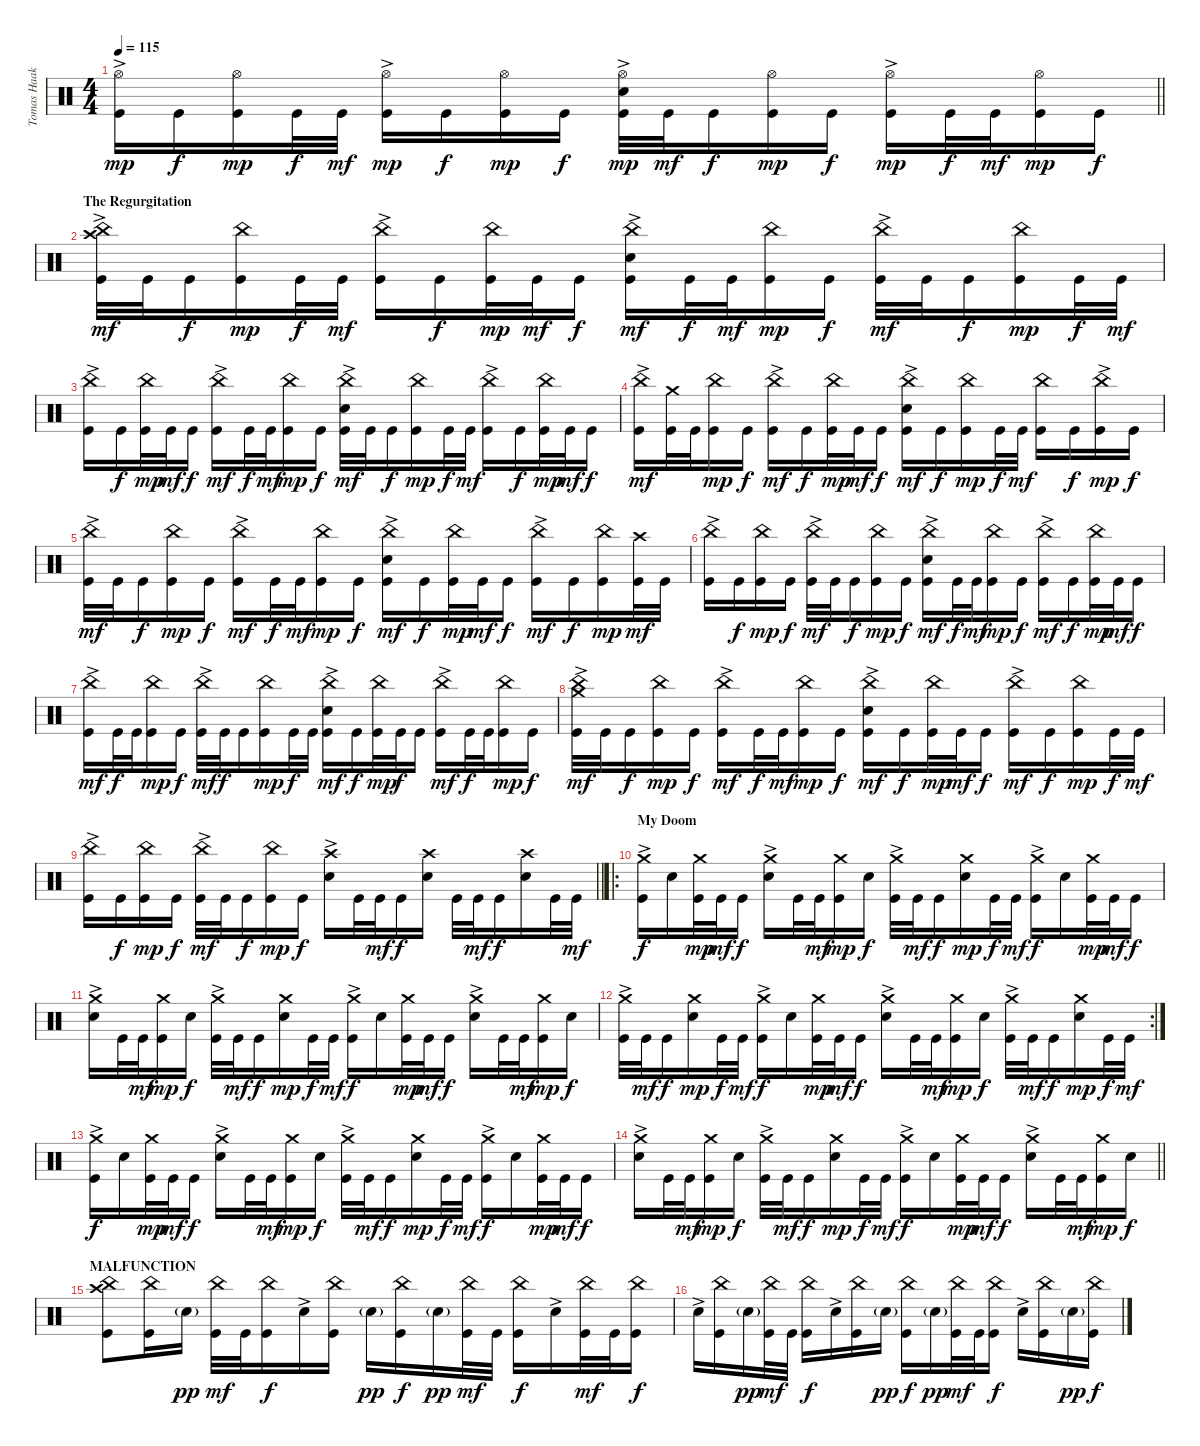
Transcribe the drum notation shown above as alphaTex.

\track ("Tomas Haake (Drums)" "Tomas Haak") {instrument percussion}
\staff {score}
\articulation defaults
\ts (4 4)
\tempo 115
\clef neutral
\barLineRight lightlight
\ks c
("Hi-Hat (open)"{ac} "Kick (hit)").16{dy mp} "Kick (hit)".16{dy f} ("Hi-Hat (open)" "Kick (hit)").16{dy mp} "Kick (hit)".32{dy f} "Kick (hit)".32{dy mf} ("Hi-Hat (open)"{ac} "Kick (hit)").16{dy mp} "Kick (hit)".16{dy f} ("Hi-Hat (open)" "Kick (hit)").16{dy mp} "Kick (hit)".16{dy f} ("Hi-Hat (open)"{ac} "Electric Snare (hit)" "Kick (hit)").32{dy mp} "Kick (hit)".32{dy mf} "Kick (hit)".16{dy f} ("Hi-Hat (open)" "Kick (hit)").16{dy mp} "Kick (hit)".16{dy f} ("Hi-Hat (open)"{ac} "Kick (hit)").16{dy mp} "Kick (hit)".32{dy f} "Kick (hit)".32{dy mf} ("Hi-Hat (open)" "Kick (hit)").16{dy mp} "Kick (hit)".16{dy f} |
\section ("" "The Regurgitation")
("China (hit)"{ac} "Crash high (hit)" "Kick (hit)").32{dy mf} "Kick (hit)".32 "Kick (hit)".16{dy f} ("China (hit)" "Kick (hit)").16{dy mp} "Kick (hit)".32{dy f} "Kick (hit)".32{dy mf} ("China (hit)"{ac} "Kick (hit)").16 "Kick (hit)".16{dy f} ("China (hit)" "Kick (hit)").32{dy mp} "Kick (hit)".32{dy mf} "Kick (hit)".16{dy f} ("China (hit)"{ac} "Electric Snare (hit)" "Kick (hit)").16{dy mf} "Kick (hit)".32{dy f} "Kick (hit)".32{dy mf} ("China (hit)" "Kick (hit)").16{dy mp} "Kick (hit)".16{dy f} ("China (hit)"{ac} "Kick (hit)").32{dy mf} "Kick (hit)".32 "Kick (hit)".16{dy f} ("China (hit)" "Kick (hit)").16{dy mp} "Kick (hit)".32{dy f} "Kick (hit)".32{dy mf} |
("China (hit)"{ac} "Kick (hit)").16 "Kick (hit)".16{dy f} ("China (hit)" "Kick (hit)").32{dy mp} "Kick (hit)".32{dy mf} "Kick (hit)".16{dy f} ("China (hit)"{ac} "Kick (hit)").16{dy mf} "Kick (hit)".32{dy f} "Kick (hit)".32{dy mf} ("China (hit)" "Kick (hit)").16{dy mp} "Kick (hit)".16{dy f} ("China (hit)"{ac} "Electric Snare (hit)" "Kick (hit)").32{dy mf} "Kick (hit)".32 "Kick (hit)".16{dy f} ("China (hit)" "Kick (hit)").16{dy mp} "Kick (hit)".32{dy f} "Kick (hit)".32{dy mf} ("China (hit)"{ac} "Kick (hit)").16 "Kick (hit)".16{dy f} ("China (hit)" "Kick (hit)").32{dy mp} "Kick (hit)".32{dy mf} "Kick (hit)".16{dy f} |
("China (hit)"{ac} "Kick (hit)").16{dy mf} ("Crash medium (hit)" "Kick (hit)").32 "Kick (hit)".32 ("China (hit)" "Kick (hit)").16{dy mp} "Kick (hit)".16{dy f} ("China (hit)"{ac} "Kick (hit)").16{dy mf} "Kick (hit)".16{dy f} ("China (hit)" "Kick (hit)").32{dy mp} "Kick (hit)".32{dy mf} "Kick (hit)".16{dy f} ("China (hit)"{ac} "Electric Snare (hit)" "Kick (hit)").16{dy mf} "Kick (hit)".16{dy f} ("China (hit)" "Kick (hit)").16{dy mp} "Kick (hit)".32{dy f} "Kick (hit)".32{dy mf} ("China (hit)" "Kick (hit)").16 "Kick (hit)".16{dy f} ("China (hit)"{ac} "Kick (hit)").16{dy mp} "Kick (hit)".16{dy f} |
("China (hit)"{ac} "Kick (hit)").32{dy mf} "Kick (hit)".32 "Kick (hit)".16{dy f} ("China (hit)" "Kick (hit)").16{dy mp} "Kick (hit)".16{dy f} ("China (hit)"{ac} "Kick (hit)").16{dy mf} "Kick (hit)".32{dy f} "Kick (hit)".32{dy mf} ("China (hit)" "Kick (hit)").16{dy mp} "Kick (hit)".16{dy f} ("China (hit)"{ac} "Electric Snare (hit)" "Kick (hit)").16{dy mf} "Kick (hit)".16{dy f} ("China (hit)" "Kick (hit)").32{dy mp} "Kick (hit)".32{dy mf} "Kick (hit)".16{dy f} ("China (hit)"{ac} "Kick (hit)").16{dy mf} "Kick (hit)".16{dy f} ("China (hit)" "Kick (hit)").16{dy mp} ("Crash high (hit)" "Kick (hit)").32{dy mf} "Kick (hit)".32 |
("China (hit)"{ac} "Kick (hit)").16 "Kick (hit)".16{dy f} ("China (hit)" "Kick (hit)").16{dy mp} "Kick (hit)".16{dy f} ("China (hit)"{ac} "Kick (hit)").32{dy mf} "Kick (hit)".32 "Kick (hit)".16{dy f} ("China (hit)" "Kick (hit)").16{dy mp} "Kick (hit)".16{dy f} ("China (hit)"{ac} "Electric Snare (hit)" "Kick (hit)").16{dy mf} "Kick (hit)".32{dy f} "Kick (hit)".32{dy mf} ("China (hit)" "Kick (hit)").16{dy mp} "Kick (hit)".16{dy f} ("China (hit)"{ac} "Kick (hit)").16{dy mf} "Kick (hit)".16{dy f} ("China (hit)" "Kick (hit)").32{dy mp} "Kick (hit)".32{dy mf} "Kick (hit)".16{dy f} |
("China (hit)"{ac} "Kick (hit)").16{dy mf} "Kick (hit)".32{dy f} "Kick (hit)".32 ("China (hit)" "Kick (hit)").16{dy mp} "Kick (hit)".16{dy f} ("China (hit)"{ac} "Kick (hit)").32{dy mf} "Kick (hit)".32{dy f} "Kick (hit)".16 ("China (hit)" "Kick (hit)").16{dy mp} "Kick (hit)".32{dy f} "Kick (hit)".32 ("China (hit)"{ac} "Electric Snare (hit)" "Kick (hit)").16{dy mf} "Kick (hit)".16{dy f} ("China (hit)" "Kick (hit)").32{dy mp} "Kick (hit)".32{dy f} "Kick (hit)".16 ("China (hit)"{ac} "Kick (hit)").16{dy mf} "Kick (hit)".32{dy f} "Kick (hit)".32 ("China (hit)" "Kick (hit)").16{dy mp} "Kick (hit)".16{dy f} |
("China (hit)"{ac} "Crash medium (hit)" "Kick (hit)").32{dy mf} "Kick (hit)".32 "Kick (hit)".16{dy f} ("China (hit)" "Kick (hit)").16{dy mp} "Kick (hit)".16{dy f} ("China (hit)"{ac} "Kick (hit)").16{dy mf} "Kick (hit)".32{dy f} "Kick (hit)".32{dy mf} ("China (hit)" "Kick (hit)").16{dy mp} "Kick (hit)".16{dy f} ("China (hit)"{ac} "Electric Snare (hit)" "Kick (hit)").16{dy mf} "Kick (hit)".16{dy f} ("China (hit)" "Kick (hit)").32{dy mp} "Kick (hit)".32{dy mf} "Kick (hit)".16{dy f} ("China (hit)"{ac} "Kick (hit)").16{dy mf} "Kick (hit)".16{dy f} ("China (hit)" "Kick (hit)").16{dy mp} "Kick (hit)".32{dy f} "Kick (hit)".32{dy mf} |
\barLineRight lightlight
("China (hit)"{ac} "Kick (hit)").16 "Kick (hit)".16{dy f} ("China (hit)" "Kick (hit)").16{dy mp} "Kick (hit)".16{dy f} ("China (hit)"{ac} "Kick (hit)").32{dy mf} "Kick (hit)".32 "Kick (hit)".16{dy f} ("China (hit)" "Kick (hit)").16{dy mp} "Kick (hit)".16{dy f} ("Crash high (hit)"{ac} "Electric Snare (hit)").16 "Kick (hit)".32 "Kick (hit)".32{dy mf} "Kick (hit)".16{dy f} ("Crash high (hit)" "Electric Snare (hit)").16 "Kick (hit)".32 "Kick (hit)".32{dy mf} "Kick (hit)".16{dy f} ("Crash high (hit)" "Electric Snare (hit)").16 "Kick (hit)".32 "Kick (hit)".32{dy mf} |
\ro
\section ("" "My Doom")
("Crash medium (hit)"{ac} "Kick (hit)").16{dy f} "Electric Snare (hit)".16 ("Crash medium (hit)" "Kick (hit)").32{dy mp} "Kick (hit)".32{dy mf} "Kick (hit)".16{dy f} ("Crash medium (hit)"{ac} "Electric Snare (hit)").16 "Kick (hit)".32 "Kick (hit)".32{dy mf} ("Crash medium (hit)" "Kick (hit)").16{dy mp} "Electric Snare (hit)".16{dy f} ("Crash medium (hit)"{ac} "Kick (hit)").32 "Kick (hit)".32{dy mf} "Kick (hit)".16{dy f} ("Crash medium (hit)" "Electric Snare (hit)").16{dy mp} "Kick (hit)".32{dy f} "Kick (hit)".32{dy mf} ("Crash medium (hit)"{ac} "Kick (hit)").16{dy f} "Electric Snare (hit)".16 ("Crash medium (hit)" "Kick (hit)").32{dy mp} "Kick (hit)".32{dy mf} "Kick (hit)".16{dy f} |
("Crash medium (hit)"{ac} "Electric Snare (hit)").16 "Kick (hit)".32 "Kick (hit)".32{dy mf} ("Crash medium (hit)" "Kick (hit)").16{dy mp} "Electric Snare (hit)".16{dy f} ("Crash medium (hit)"{ac} "Kick (hit)").32 "Kick (hit)".32{dy mf} "Kick (hit)".16{dy f} ("Crash medium (hit)" "Electric Snare (hit)").16{dy mp} "Kick (hit)".32{dy f} "Kick (hit)".32{dy mf} ("Crash medium (hit)"{ac} "Kick (hit)").16{dy f} "Electric Snare (hit)".16 ("Crash medium (hit)" "Kick (hit)").32{dy mp} "Kick (hit)".32{dy mf} "Kick (hit)".16{dy f} ("Crash medium (hit)"{ac} "Electric Snare (hit)").16 "Kick (hit)".32 "Kick (hit)".32{dy mf} ("Crash medium (hit)" "Kick (hit)").16{dy mp} "Electric Snare (hit)".16{dy f} |
\rc 2
("Crash medium (hit)"{ac} "Kick (hit)").32 "Kick (hit)".32{dy mf} "Kick (hit)".16{dy f} ("Crash medium (hit)" "Electric Snare (hit)").16{dy mp} "Kick (hit)".32{dy f} "Kick (hit)".32{dy mf} ("Crash medium (hit)"{ac} "Kick (hit)").16{dy f} "Electric Snare (hit)".16 ("Crash medium (hit)" "Kick (hit)").32{dy mp} "Kick (hit)".32{dy mf} "Kick (hit)".16{dy f} ("Crash medium (hit)"{ac} "Electric Snare (hit)").16 "Kick (hit)".32 "Kick (hit)".32{dy mf} ("Crash medium (hit)" "Kick (hit)").16{dy mp} "Electric Snare (hit)".16{dy f} ("Crash medium (hit)"{ac} "Kick (hit)").32 "Kick (hit)".32{dy mf} "Kick (hit)".16{dy f} ("Crash medium (hit)" "Electric Snare (hit)").16{dy mp} "Kick (hit)".32{dy f} "Kick (hit)".32{dy mf} |
("Crash medium (hit)"{ac} "Kick (hit)").16{dy f} "Electric Snare (hit)".16 ("Crash medium (hit)" "Kick (hit)").32{dy mp} "Kick (hit)".32{dy mf} "Kick (hit)".16{dy f} ("Crash medium (hit)"{ac} "Electric Snare (hit)").16 "Kick (hit)".32 "Kick (hit)".32{dy mf} ("Crash medium (hit)" "Kick (hit)").16{dy mp} "Electric Snare (hit)".16{dy f} ("Crash medium (hit)"{ac} "Kick (hit)").32 "Kick (hit)".32{dy mf} "Kick (hit)".16{dy f} ("Crash medium (hit)" "Electric Snare (hit)").16{dy mp} "Kick (hit)".32{dy f} "Kick (hit)".32{dy mf} ("Crash medium (hit)"{ac} "Kick (hit)").16{dy f} "Electric Snare (hit)".16 ("Crash medium (hit)" "Kick (hit)").32{dy mp} "Kick (hit)".32{dy mf} "Kick (hit)".16{dy f} |
\barLineRight lightlight
("Crash medium (hit)"{ac} "Electric Snare (hit)").16 "Kick (hit)".32 "Kick (hit)".32{dy mf} ("Crash medium (hit)" "Kick (hit)").16{dy mp} "Electric Snare (hit)".16{dy f} ("Crash medium (hit)"{ac} "Kick (hit)").32 "Kick (hit)".32{dy mf} "Kick (hit)".16{dy f} ("Crash medium (hit)" "Electric Snare (hit)").16{dy mp} "Kick (hit)".32{dy f} "Kick (hit)".32{dy mf} ("Crash medium (hit)"{ac} "Kick (hit)").16{dy f} "Electric Snare (hit)".16 ("Crash medium (hit)" "Kick (hit)").32{dy mp} "Kick (hit)".32{dy mf} "Kick (hit)".16{dy f} ("Crash medium (hit)"{ac} "Electric Snare (hit)").16 "Kick (hit)".32 "Kick (hit)".32{dy mf} ("Crash medium (hit)" "Kick (hit)").16{dy mp} "Electric Snare (hit)".16{dy f} |
\section ("" "MALFUNCTION")
("China (hit)" "Crash high (hit)" "Kick (hit)").8 ("China (hit)" "Kick (hit)").16 "Electric Snare (hit)"{g}.16{dy pp} ("China (hit)" "Kick (hit)").32{dy mf} "Kick (hit)".32 ("China (hit)" "Kick (hit)").16{dy f} "Electric Snare (hit)"{ac}.16 ("China (hit)" "Kick (hit)").16 "Electric Snare (hit)"{g}.16{dy pp} ("China (hit)" "Kick (hit)").16{dy f} "Electric Snare (hit)"{g}.16{dy pp} ("China (hit)" "Kick (hit)").32{dy mf} "Kick (hit)".32 ("China (hit)" "Kick (hit)").16{dy f} "Electric Snare (hit)"{ac}.16 ("China (hit)" "Kick (hit)").32{dy mf} "Kick (hit)".32 ("China (hit)" "Kick (hit)").16{dy f} |
"Electric Snare (hit)"{ac}.16 ("China (hit)" "Kick (hit)").16 "Electric Snare (hit)"{g}.16{dy pp} ("China (hit)" "Kick (hit)").32{dy mf} "Kick (hit)".32 ("China (hit)" "Kick (hit)").16{dy f} "Electric Snare (hit)"{ac}.16 ("China (hit)" "Kick (hit)").16 "Electric Snare (hit)"{g}.16{dy pp} ("China (hit)" "Kick (hit)").16{dy f} "Electric Snare (hit)"{g}.16{dy pp} ("China (hit)" "Kick (hit)").32{dy mf} "Kick (hit)".32 ("China (hit)" "Kick (hit)").16{dy f} "Electric Snare (hit)"{ac}.16 ("China (hit)" "Kick (hit)").16 "Electric Snare (hit)"{g}.16{dy pp} ("China (hit)" "Kick (hit)").16{dy f}
